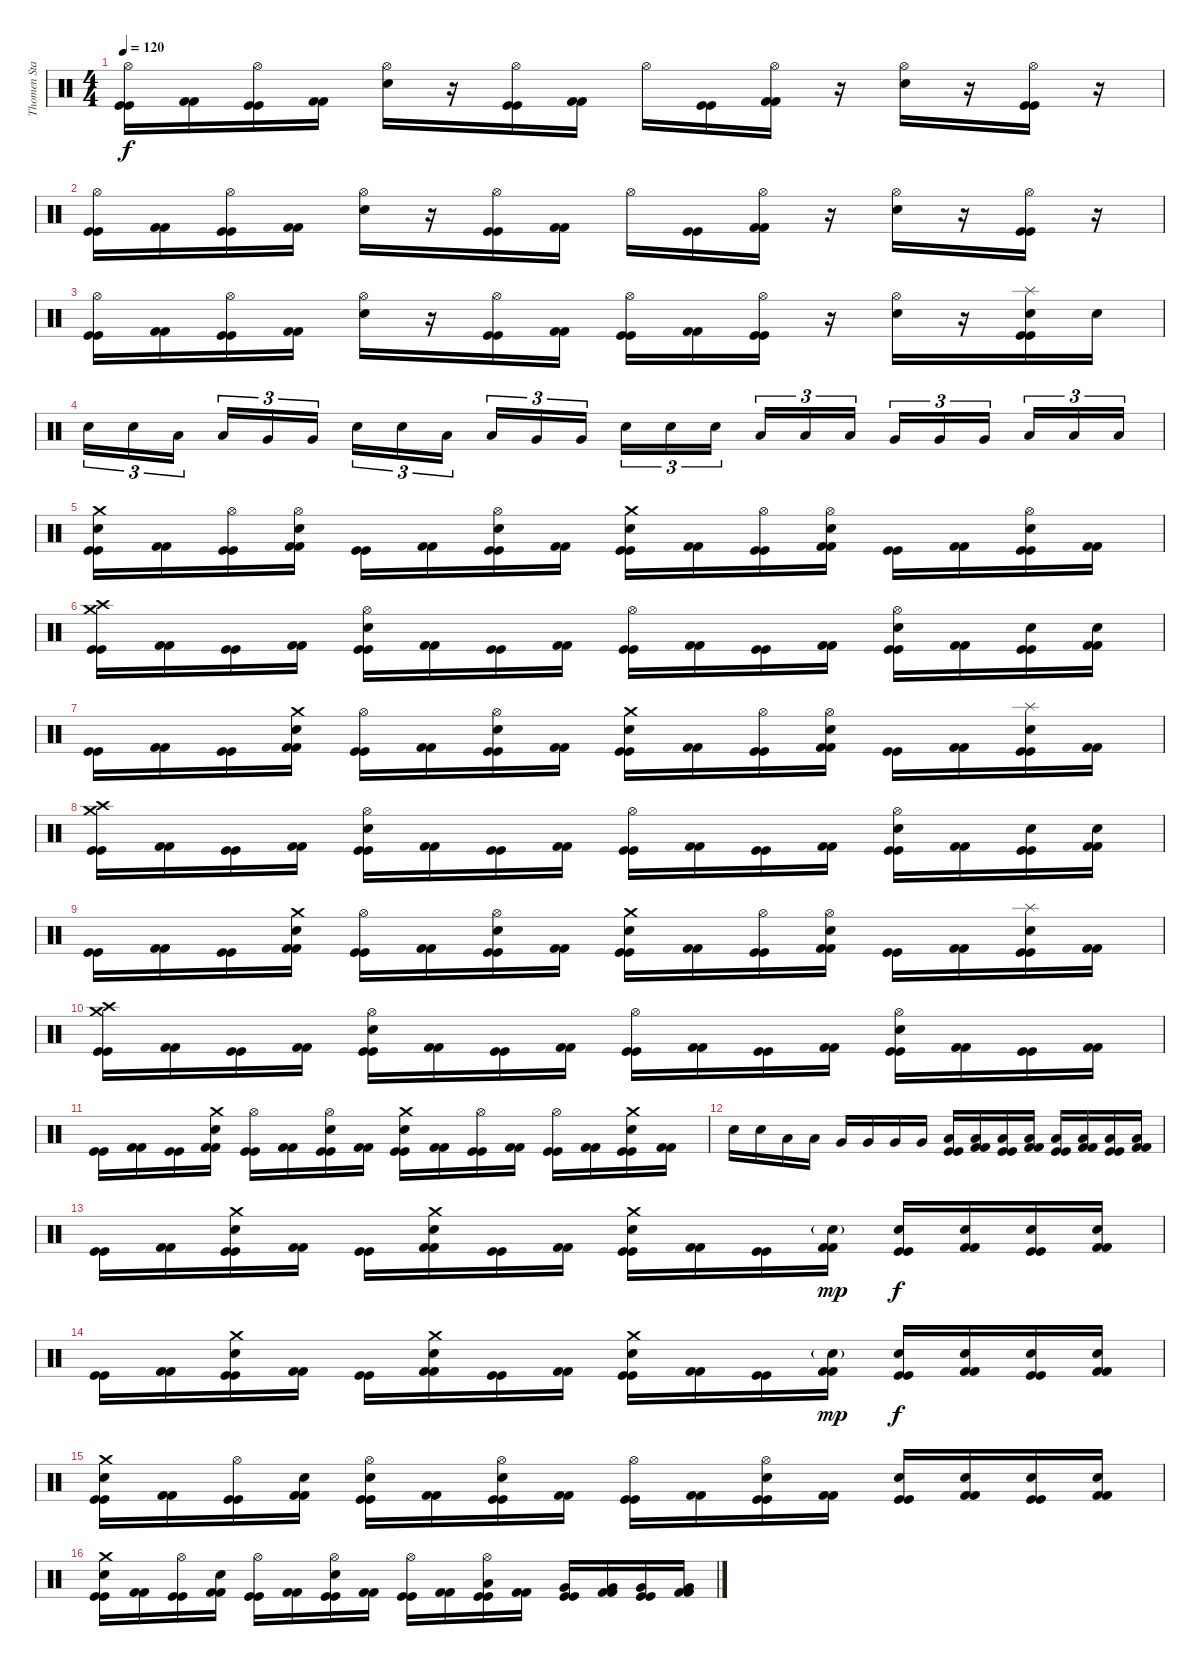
\track ("Thomen Stauch" "Thomen Sta") {instrument percussion}
\staff {score}
\articulation defaults
\ts (4 4)
\tempo 120
\clef neutral
\ks c
("Hi-Hat (open)" "Kick (hit)" "Kick (hit)").16{dy f} ("Kick (hit) 2" "Kick (hit) 2").16 ("Hi-Hat (open)" "Kick (hit)" "Kick (hit)").16 ("Kick (hit) 2" "Kick (hit) 2").16 ("Hi-Hat (open)" "Snare (hit) 2").16 r.16 ("Hi-Hat (open)" "Kick (hit)" "Kick (hit)").16 ("Kick (hit) 2" "Kick (hit) 2").16 "Hi-Hat (open)".16 ("Kick (hit)" "Kick (hit)").16 ("Hi-Hat (open)" "Kick (hit) 2" "Kick (hit) 2").16 r.16 ("Hi-Hat (open)" "Snare (hit) 2").16 r.16 ("Hi-Hat (open)" "Kick (hit)" "Kick (hit)").16 r.16 |
("Hi-Hat (open)" "Kick (hit)" "Kick (hit)").16 ("Kick (hit) 2" "Kick (hit) 2").16 ("Hi-Hat (open)" "Kick (hit)" "Kick (hit)").16 ("Kick (hit) 2" "Kick (hit) 2").16 ("Hi-Hat (open)" "Snare (hit) 2").16 r.16 ("Hi-Hat (open)" "Kick (hit)" "Kick (hit)").16 ("Kick (hit) 2" "Kick (hit) 2").16 "Hi-Hat (open)".16 ("Kick (hit)" "Kick (hit)").16 ("Hi-Hat (open)" "Kick (hit) 2" "Kick (hit) 2").16 r.16 ("Hi-Hat (open)" "Snare (hit) 2").16 r.16 ("Hi-Hat (open)" "Kick (hit)" "Kick (hit)").16 r.16 |
("Hi-Hat (open)" "Kick (hit)" "Kick (hit)").16 ("Kick (hit) 2" "Kick (hit) 2").16 ("Hi-Hat (open)" "Kick (hit)" "Kick (hit)").16 ("Kick (hit) 2" "Kick (hit) 2").16 ("Hi-Hat (open)" "Snare (hit) 2").16 r.16 ("Hi-Hat (open)" "Kick (hit)" "Kick (hit)").16 ("Kick (hit) 2" "Kick (hit) 2").16 ("Hi-Hat (open)" "Kick (hit)" "Kick (hit)").16 ("Kick (hit) 2" "Kick (hit) 2").16 ("Hi-Hat (open)" "Kick (hit)" "Kick (hit)").16 r.16 ("Hi-Hat (open)" "Snare (hit) 2").16 r.16 ("Splash (hit)" "Snare (hit) 2" "Kick (hit)" "Kick (hit)").16 "Snare (hit) 2".16 |
"Snare (hit) 2".16{tu (3 2)} "Snare (hit) 2".16{tu (3 2)} "Low Tom (hit)".16{tu (3 2)} "Low Tom (hit)".16{tu (3 2)} "Very Low Tom (hit)".16{tu (3 2)} "Very Low Tom (hit)".16{tu (3 2)} "Snare (hit) 2".16{tu (3 2)} "Snare (hit) 2".16{tu (3 2)} "Low Tom (hit)".16{tu (3 2)} "Low Tom (hit)".16{tu (3 2)} "Very Low Tom (hit)".16{tu (3 2)} "Very Low Tom (hit)".16{tu (3 2)} "Snare (hit) 2".16{tu (3 2)} "Snare (hit) 2".16{tu (3 2)} "Snare (hit) 2".16{tu (3 2)} "Low Tom (hit)".16{tu (3 2)} "Low Tom (hit)".16{tu (3 2)} "Low Tom (hit)".16{tu (3 2)} "Very Low Tom (hit)".16{tu (3 2)} "Very Low Tom (hit)".16{tu (3 2)} "Very Low Tom (hit)".16{tu (3 2)} "Low Floor Tom (hit)".16{tu (3 2)} "Low Floor Tom (hit)".16{tu (3 2)} "Low Floor Tom (hit)".16{tu (3 2)} |
("Crash medium (hit)" "Snare (hit) 2" "Kick (hit)" "Kick (hit)").16 ("Kick (hit) 2" "Kick (hit) 2").16 ("Hi-Hat (open)" "Kick (hit)" "Kick (hit)").16 ("Hi-Hat (open)" "Snare (hit) 2" "Kick (hit) 2" "Kick (hit) 2").16 ("Kick (hit)" "Kick (hit)").16 ("Kick (hit) 2" "Kick (hit) 2").16 ("Hi-Hat (open)" "Snare (hit) 2" "Kick (hit)" "Kick (hit)").16 ("Kick (hit) 2" "Kick (hit) 2").16 ("Crash medium (hit)" "Snare (hit) 2" "Kick (hit)" "Kick (hit)").16 ("Kick (hit) 2" "Kick (hit) 2").16 ("Hi-Hat (open)" "Kick (hit)" "Kick (hit)").16 ("Hi-Hat (open)" "Snare (hit) 2" "Kick (hit) 2" "Kick (hit) 2").16 ("Kick (hit)" "Kick (hit)").16 ("Kick (hit) 2" "Kick (hit) 2").16 ("Hi-Hat (open)" "Snare (hit) 2" "Kick (hit)" "Kick (hit)").16 ("Kick (hit) 2" "Kick (hit) 2").16 |
("Crash medium (hit)" "Crash high (hit)" "Kick (hit)" "Kick (hit)").16 ("Kick (hit) 2" "Kick (hit) 2").16 ("Kick (hit)" "Kick (hit)").16 ("Kick (hit) 2" "Kick (hit) 2").16 ("Hi-Hat (open)" "Snare (hit) 2" "Kick (hit)" "Kick (hit)").16 ("Kick (hit) 2" "Kick (hit) 2").16 ("Kick (hit)" "Kick (hit)").16 ("Kick (hit) 2" "Kick (hit) 2").16 ("Hi-Hat (open)" "Kick (hit)" "Kick (hit)").16 ("Kick (hit) 2" "Kick (hit) 2").16 ("Kick (hit)" "Kick (hit)").16 ("Kick (hit) 2" "Kick (hit) 2").16 ("Hi-Hat (open)" "Snare (hit) 2" "Kick (hit)" "Kick (hit)").16 ("Kick (hit) 2" "Kick (hit) 2").16 ("Snare (hit) 2" "Kick (hit)" "Kick (hit)").16 ("Snare (hit) 2" "Kick (hit) 2" "Kick (hit) 2").16 |
("Kick (hit)" "Kick (hit)").16 ("Kick (hit) 2" "Kick (hit) 2").16 ("Kick (hit)" "Kick (hit)").16 ("Crash medium (hit)" "Snare (hit) 2" "Kick (hit) 2" "Kick (hit) 2").16 ("Hi-Hat (open)" "Kick (hit)" "Kick (hit)").16 ("Kick (hit) 2" "Kick (hit) 2").16 ("Hi-Hat (open)" "Snare (hit) 2" "Kick (hit)" "Kick (hit)").16 ("Kick (hit) 2" "Kick (hit) 2").16 ("Crash medium (hit)" "Snare (hit) 2" "Kick (hit)" "Kick (hit)").16 ("Kick (hit) 2" "Kick (hit) 2").16 ("Hi-Hat (open)" "Kick (hit)" "Kick (hit)").16 ("Hi-Hat (open)" "Snare (hit) 2" "Kick (hit) 2" "Kick (hit) 2").16 ("Kick (hit)" "Kick (hit)").16 ("Kick (hit) 2" "Kick (hit) 2").16 ("Splash (hit)" "Snare (hit) 2" "Kick (hit)" "Kick (hit)").16 ("Kick (hit) 2" "Kick (hit) 2").16 |
("Crash medium (hit)" "Crash high (hit)" "Kick (hit)" "Kick (hit)").16 ("Kick (hit) 2" "Kick (hit) 2").16 ("Kick (hit)" "Kick (hit)").16 ("Kick (hit) 2" "Kick (hit) 2").16 ("Hi-Hat (open)" "Snare (hit) 2" "Kick (hit)" "Kick (hit)").16 ("Kick (hit) 2" "Kick (hit) 2").16 ("Kick (hit)" "Kick (hit)").16 ("Kick (hit) 2" "Kick (hit) 2").16 ("Hi-Hat (open)" "Kick (hit)" "Kick (hit)").16 ("Kick (hit) 2" "Kick (hit) 2").16 ("Kick (hit)" "Kick (hit)").16 ("Kick (hit) 2" "Kick (hit) 2").16 ("Hi-Hat (open)" "Snare (hit) 2" "Kick (hit)" "Kick (hit)").16 ("Kick (hit) 2" "Kick (hit) 2").16 ("Snare (hit) 2" "Kick (hit)" "Kick (hit)").16 ("Snare (hit) 2" "Kick (hit) 2" "Kick (hit) 2").16 |
("Kick (hit)" "Kick (hit)").16 ("Kick (hit) 2" "Kick (hit) 2").16 ("Kick (hit)" "Kick (hit)").16 ("Crash medium (hit)" "Snare (hit) 2" "Kick (hit) 2" "Kick (hit) 2").16 ("Hi-Hat (open)" "Kick (hit)" "Kick (hit)").16 ("Kick (hit) 2" "Kick (hit) 2").16 ("Hi-Hat (open)" "Snare (hit) 2" "Kick (hit)" "Kick (hit)").16 ("Kick (hit) 2" "Kick (hit) 2").16 ("Crash medium (hit)" "Snare (hit) 2" "Kick (hit)" "Kick (hit)").16 ("Kick (hit) 2" "Kick (hit) 2").16 ("Hi-Hat (open)" "Kick (hit)" "Kick (hit)").16 ("Hi-Hat (open)" "Snare (hit) 2" "Kick (hit) 2" "Kick (hit) 2").16 ("Kick (hit)" "Kick (hit)").16 ("Kick (hit) 2" "Kick (hit) 2").16 ("Splash (hit)" "Snare (hit) 2" "Kick (hit)" "Kick (hit)").16 ("Kick (hit) 2" "Kick (hit) 2").16 |
("Crash medium (hit)" "Crash high (hit)" "Kick (hit)" "Kick (hit)").16 ("Kick (hit) 2" "Kick (hit) 2").16 ("Kick (hit)" "Kick (hit)").16 ("Kick (hit) 2" "Kick (hit) 2").16 ("Hi-Hat (open)" "Snare (hit) 2" "Kick (hit)" "Kick (hit)").16 ("Kick (hit) 2" "Kick (hit) 2").16 ("Kick (hit)" "Kick (hit)").16 ("Kick (hit) 2" "Kick (hit) 2").16 ("Hi-Hat (open)" "Kick (hit)" "Kick (hit)").16 ("Kick (hit) 2" "Kick (hit) 2").16 ("Kick (hit)" "Kick (hit)").16 ("Kick (hit) 2" "Kick (hit) 2").16 ("Hi-Hat (open)" "Snare (hit) 2" "Kick (hit)" "Kick (hit)").16 ("Kick (hit) 2" "Kick (hit) 2").16 ("Kick (hit)" "Kick (hit)").16 ("Kick (hit) 2" "Kick (hit) 2").16 |
("Kick (hit)" "Kick (hit)").16 ("Kick (hit) 2" "Kick (hit) 2").16 ("Kick (hit)" "Kick (hit)").16 ("Crash medium (hit)" "Snare (hit) 2" "Kick (hit) 2" "Kick (hit) 2").16 ("Hi-Hat (open)" "Kick (hit)" "Kick (hit)").16 ("Kick (hit) 2" "Kick (hit) 2").16 ("Hi-Hat (open)" "Snare (hit) 2" "Kick (hit)" "Kick (hit)").16 ("Kick (hit) 2" "Kick (hit) 2").16 ("Crash medium (hit)" "Snare (hit) 2" "Kick (hit)" "Kick (hit)").16 ("Kick (hit) 2" "Kick (hit) 2").16 ("Hi-Hat (open)" "Kick (hit)" "Kick (hit)").16 ("Kick (hit) 2" "Kick (hit) 2").16 ("Hi-Hat (open)" "Kick (hit)" "Kick (hit)").16 ("Kick (hit) 2" "Kick (hit) 2").16 ("Crash medium (hit)" "Snare (hit) 2" "Kick (hit)" "Kick (hit)").16 ("Kick (hit) 2" "Kick (hit) 2").16 |
"Snare (hit) 2".16 "Snare (hit) 2".16 "Low Tom (hit)".16 "Low Tom (hit)".16 "Very Low Tom (hit)".16 "Very Low Tom (hit)".16 "Very Low Tom (hit)".16 "Very Low Tom (hit)".16 ("Low Floor Tom (hit)" "Kick (hit)" "Kick (hit)").16 ("Low Floor Tom (hit)" "Kick (hit) 2" "Kick (hit) 2").16 ("Low Floor Tom (hit)" "Kick (hit)" "Kick (hit)").16 ("Low Floor Tom (hit)" "Kick (hit) 2" "Kick (hit) 2").16 ("Low Floor Tom (hit)" "Kick (hit)" "Kick (hit)").16 ("Low Floor Tom (hit)" "Kick (hit) 2" "Kick (hit) 2").16 ("Low Floor Tom (hit)" "Kick (hit)" "Kick (hit)").16 ("Low Floor Tom (hit)" "Kick (hit) 2" "Kick (hit) 2").16 |
("Kick (hit)" "Kick (hit)").16 ("Kick (hit) 2" "Kick (hit) 2").16 ("Crash medium (hit)" "Snare (hit) 2" "Kick (hit)" "Kick (hit)").16 ("Kick (hit) 2" "Kick (hit) 2").16 ("Kick (hit)" "Kick (hit)").16 ("Crash medium (hit)" "Snare (hit) 2" "Kick (hit) 2" "Kick (hit) 2").16 ("Kick (hit)" "Kick (hit)").16 ("Kick (hit) 2" "Kick (hit) 2").16 ("Crash medium (hit)" "Snare (hit) 2" "Kick (hit)" "Kick (hit)").16 ("Kick (hit) 2" "Kick (hit) 2").16 ("Kick (hit)" "Kick (hit)").16 ("Snare (hit) 2"{g} "Kick (hit) 2" "Kick (hit) 2").16{dy mp} ("Snare (hit) 2" "Kick (hit)" "Kick (hit)").16{dy f} ("Snare (hit) 2" "Kick (hit) 2" "Kick (hit) 2").16 ("Snare (hit) 2" "Kick (hit)" "Kick (hit)").16 ("Snare (hit) 2" "Kick (hit) 2" "Kick (hit) 2").16 |
("Kick (hit)" "Kick (hit)").16 ("Kick (hit) 2" "Kick (hit) 2").16 ("Crash medium (hit)" "Snare (hit) 2" "Kick (hit)" "Kick (hit)").16 ("Kick (hit) 2" "Kick (hit) 2").16 ("Kick (hit)" "Kick (hit)").16 ("Crash medium (hit)" "Snare (hit) 2" "Kick (hit) 2" "Kick (hit) 2").16 ("Kick (hit)" "Kick (hit)").16 ("Kick (hit) 2" "Kick (hit) 2").16 ("Crash medium (hit)" "Snare (hit) 2" "Kick (hit)" "Kick (hit)").16 ("Kick (hit) 2" "Kick (hit) 2").16 ("Kick (hit)" "Kick (hit)").16 ("Snare (hit) 2"{g} "Kick (hit) 2" "Kick (hit) 2").16{dy mp} ("Snare (hit) 2" "Kick (hit)" "Kick (hit)").16{dy f} ("Snare (hit) 2" "Kick (hit) 2" "Kick (hit) 2").16 ("Snare (hit) 2" "Kick (hit)" "Kick (hit)").16 ("Snare (hit) 2" "Kick (hit) 2" "Kick (hit) 2").16 |
("Crash medium (hit)" "Snare (hit) 2" "Kick (hit)" "Kick (hit)").16 ("Kick (hit) 2" "Kick (hit) 2").16 ("Hi-Hat (open)" "Kick (hit)" "Kick (hit)").16 ("Snare (hit) 2" "Kick (hit) 2" "Kick (hit) 2").16 ("Hi-Hat (open)" "Snare (hit) 2" "Kick (hit)" "Kick (hit)").16 ("Kick (hit) 2" "Kick (hit) 2").16 ("Hi-Hat (open)" "Snare (hit) 2" "Kick (hit)" "Kick (hit)").16 ("Kick (hit) 2" "Kick (hit) 2").16 ("Hi-Hat (open)" "Kick (hit)" "Kick (hit)").16 ("Kick (hit) 2" "Kick (hit) 2").16 ("Hi-Hat (open)" "Snare (hit) 2" "Kick (hit)" "Kick (hit)").16 ("Kick (hit) 2" "Kick (hit) 2").16 ("Snare (hit) 2" "Kick (hit)" "Kick (hit)").16 ("Snare (hit) 2" "Kick (hit) 2" "Kick (hit) 2").16 ("Snare (hit) 2" "Kick (hit)" "Kick (hit)").16 ("Snare (hit) 2" "Kick (hit) 2" "Kick (hit) 2").16 |
("Crash medium (hit)" "Snare (hit) 2" "Kick (hit)" "Kick (hit)").16 ("Kick (hit) 2" "Kick (hit) 2").16 ("Hi-Hat (open)" "Kick (hit)" "Kick (hit)").16 ("Snare (hit) 2" "Kick (hit) 2" "Kick (hit) 2").16 ("Hi-Hat (open)" "Kick (hit)" "Kick (hit)").16 ("Kick (hit) 2" "Kick (hit) 2").16 ("Hi-Hat (open)" "Snare (hit) 2" "Kick (hit)" "Kick (hit)").16 ("Kick (hit) 2" "Kick (hit) 2").16 ("Hi-Hat (open)" "Kick (hit)" "Kick (hit)").16 ("Kick (hit) 2" "Kick (hit) 2").16 ("Hi-Hat (open)" "Low Tom (hit)" "Kick (hit)" "Kick (hit)").16 ("Kick (hit) 2" "Kick (hit) 2").16 ("Very Low Tom (hit)" "Kick (hit)" "Kick (hit)").16 ("Very Low Tom (hit)" "Kick (hit) 2" "Kick (hit) 2").16 ("Very Low Tom (hit)" "Kick (hit)" "Kick (hit)").16 ("Very Low Tom (hit)" "Kick (hit) 2" "Kick (hit) 2").16
